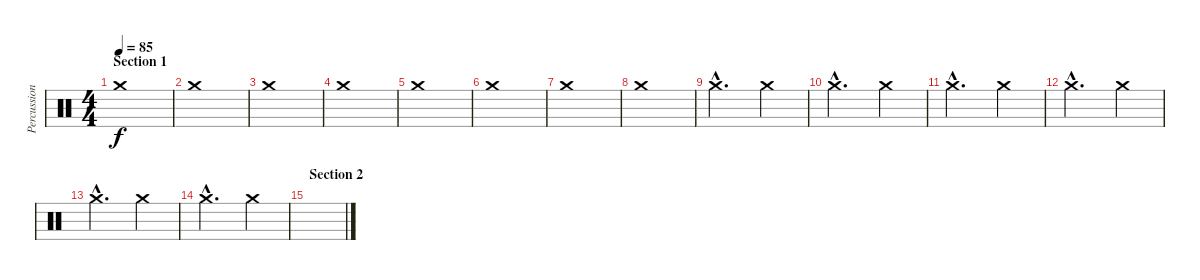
\track ("Percussion" "Percussion") {instrument percussion}
\staff {score}
\articulation defaults
\ts (4 4)
\section ("" "Section 1")
\tempo 85
\clef neutral
\ks c "Crash medium (hit)".1{dy f}
|
"Crash medium (hit)".1 |
"Crash medium (hit)".1 |
"Crash medium (hit)".1 |
"Crash medium (hit)".1 |
"Crash medium (hit)".1 |
"Crash medium (hit)".1 |
"Crash medium (hit)".1 |
"Crash medium (hit)"{hac}.2{d} "Crash medium (hit)".4 |
"Crash medium (hit)"{hac}.2{d} "Crash medium (hit)".4 |
"Crash medium (hit)"{hac}.2{d} "Crash medium (hit)".4 |
"Crash medium (hit)"{hac}.2{d} "Crash medium (hit)".4 |
"Crash medium (hit)"{hac}.2{d} "Crash medium (hit)".4 |
"Crash medium (hit)"{hac}.2{d} "Crash medium (hit)".4 |
\section ("" "Section 2")
